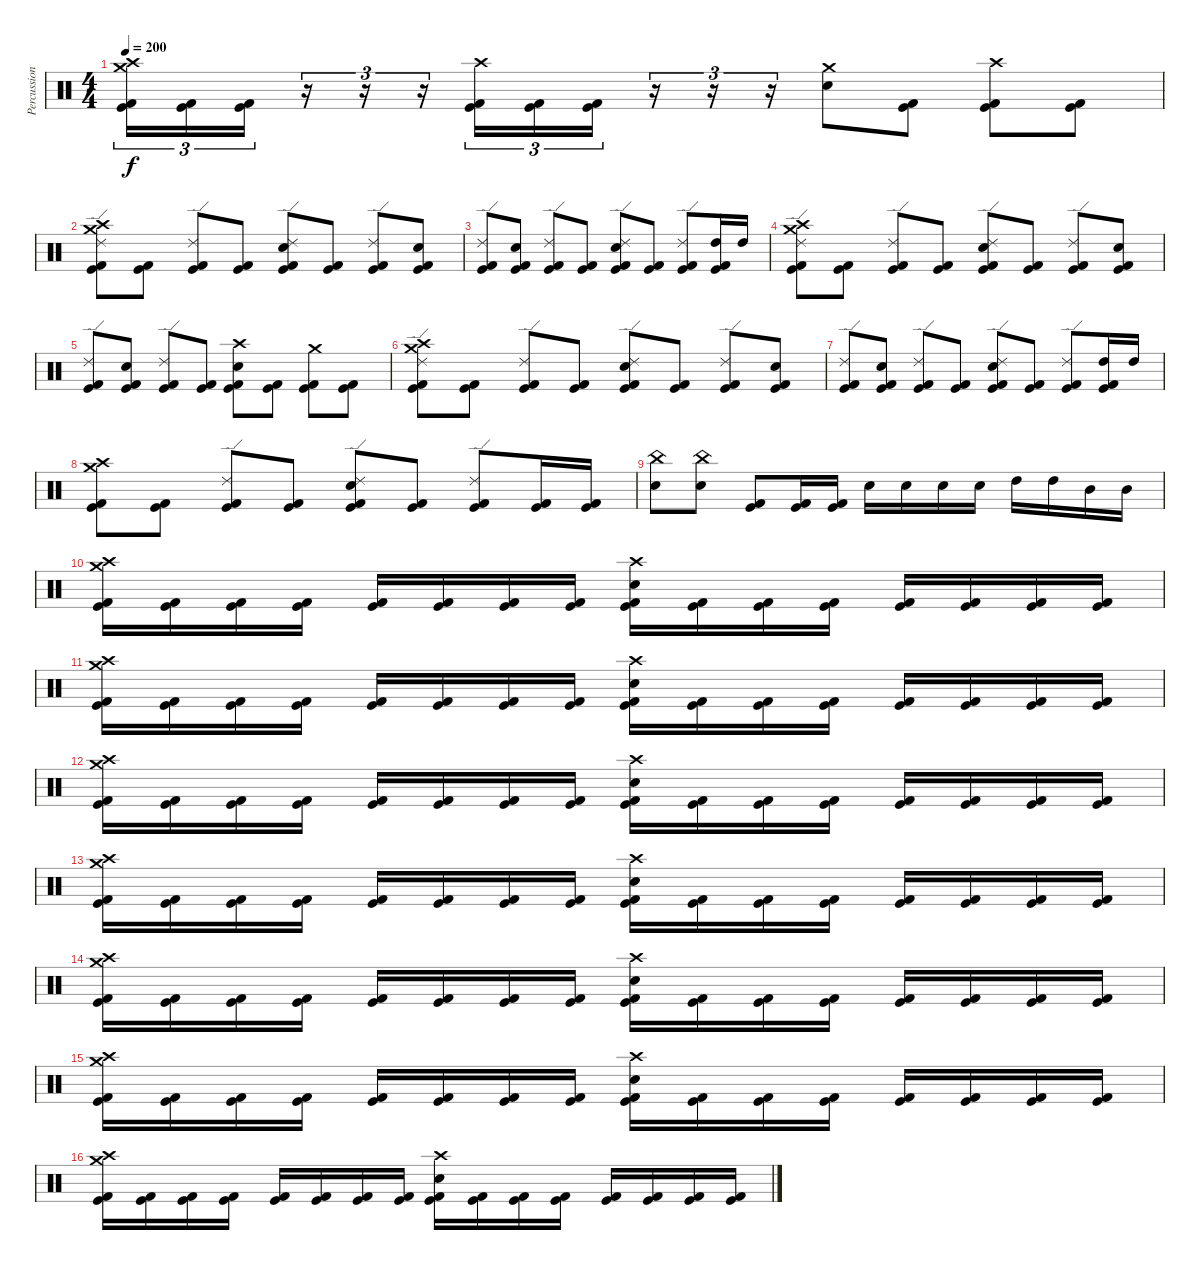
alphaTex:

\track ("Percussion" "Percussion") {instrument percussion}
\staff {score}
\articulation defaults
\ts (4 4)
\tempo 200
\clef neutral
\ks c
("Crash medium (hit)" "Crash high (hit)" "Kick (hit)" "Kick (hit) 2").16{tu (3 2) dy f} ("Kick (hit)" "Kick (hit) 2").16{tu (3 2)} ("Kick (hit)" "Kick (hit) 2").16{tu (3 2)} r.16{tu (3 2)} r.16{tu (3 2)} r.16{tu (3 2)} ("Crash high (hit)" "Kick (hit)" "Kick (hit) 2").16{tu (3 2)} ("Kick (hit)" "Kick (hit) 2").16{tu (3 2)} ("Kick (hit)" "Kick (hit) 2").16{tu (3 2)} r.16{tu (3 2)} r.16{tu (3 2)} r.16{tu (3 2)} ("Crash medium (hit)" "Electric Snare (hit)").8 ("Kick (hit)" "Kick (hit) 2").8 ("Crash high (hit)" "Kick (hit)" "Kick (hit) 2").8 ("Kick (hit)" "Kick (hit) 2").8 |
("Crash medium (hit)" "Crash high (hit)" "Ride (edge) 2" "Kick (hit)" "Kick (hit) 2").8 ("Kick (hit)" "Kick (hit) 2").8 ("Ride (edge) 2" "Kick (hit)" "Kick (hit) 2").8 ("Kick (hit)" "Kick (hit) 2").8 ("Ride (edge) 2" "Electric Snare (hit)" "Kick (hit)" "Kick (hit) 2").8 ("Kick (hit)" "Kick (hit) 2").8 ("Ride (edge) 2" "Kick (hit)" "Kick (hit) 2").8 ("Electric Snare (hit)" "Kick (hit)" "Kick (hit) 2").8 |
("Ride (edge) 2" "Kick (hit)" "Kick (hit) 2").8 ("Electric Snare (hit)" "Kick (hit)" "Kick (hit) 2").8 ("Ride (edge) 2" "Kick (hit)" "Kick (hit) 2").8 ("Kick (hit)" "Kick (hit) 2").8 ("Ride (edge) 2" "Electric Snare (hit)" "Kick (hit)" "Kick (hit) 2").8 ("Kick (hit)" "Kick (hit) 2").8 ("Ride (edge) 2" "Kick (hit)" "Kick (hit) 2").8 ("High Tom (hit)" "Kick (hit)" "Kick (hit) 2").16 "High Tom (hit)".16 |
("Crash medium (hit)" "Crash high (hit)" "Ride (edge) 2" "Kick (hit)" "Kick (hit) 2").8 ("Kick (hit)" "Kick (hit) 2").8 ("Ride (edge) 2" "Kick (hit)" "Kick (hit) 2").8 ("Kick (hit)" "Kick (hit) 2").8 ("Ride (edge) 2" "Electric Snare (hit)" "Kick (hit)" "Kick (hit) 2").8 ("Kick (hit)" "Kick (hit) 2").8 ("Ride (edge) 2" "Kick (hit)" "Kick (hit) 2").8 ("Electric Snare (hit)" "Kick (hit)" "Kick (hit) 2").8 |
("Ride (edge) 2" "Kick (hit)" "Kick (hit) 2").8 ("Electric Snare (hit)" "Kick (hit)" "Kick (hit) 2").8 ("Ride (edge) 2" "Kick (hit)" "Kick (hit) 2").8 ("Kick (hit)" "Kick (hit) 2").8 ("Crash high (hit)" "Electric Snare (hit)" "Kick (hit)" "Kick (hit) 2").8 ("Kick (hit)" "Kick (hit) 2").8 ("Crash medium (hit)" "Kick (hit)" "Kick (hit) 2").8 ("Kick (hit)" "Kick (hit) 2").8 |
("Crash medium (hit)" "Crash high (hit)" "Ride (edge) 2" "Kick (hit)" "Kick (hit) 2").8 ("Kick (hit)" "Kick (hit) 2").8 ("Ride (edge) 2" "Kick (hit)" "Kick (hit) 2").8 ("Kick (hit)" "Kick (hit) 2").8 ("Ride (edge) 2" "Electric Snare (hit)" "Kick (hit)" "Kick (hit) 2").8 ("Kick (hit)" "Kick (hit) 2").8 ("Ride (edge) 2" "Kick (hit)" "Kick (hit) 2").8 ("Electric Snare (hit)" "Kick (hit)" "Kick (hit) 2").8 |
("Ride (edge) 2" "Kick (hit)" "Kick (hit) 2").8 ("Electric Snare (hit)" "Kick (hit)" "Kick (hit) 2").8 ("Ride (edge) 2" "Kick (hit)" "Kick (hit) 2").8 ("Kick (hit)" "Kick (hit) 2").8 ("Ride (edge) 2" "Electric Snare (hit)" "Kick (hit)" "Kick (hit) 2").8 ("Kick (hit)" "Kick (hit) 2").8 ("Ride (edge) 2" "Kick (hit)" "Kick (hit) 2").8 ("High Tom (hit)" "Kick (hit)" "Kick (hit) 2").16 "High Tom (hit)".16 |
("Crash medium (hit)" "Crash high (hit)" "Kick (hit)" "Kick (hit) 2").8 ("Kick (hit)" "Kick (hit) 2").8 ("Ride (edge) 2" "Kick (hit)" "Kick (hit) 2").8 ("Kick (hit)" "Kick (hit) 2").8 ("Ride (edge) 2" "Electric Snare (hit)" "Kick (hit)" "Kick (hit) 2").8 ("Kick (hit)" "Kick (hit) 2").8 ("Ride (edge) 2" "Kick (hit)" "Kick (hit) 2").8 ("Kick (hit)" "Kick (hit) 2").16 ("Kick (hit)" "Kick (hit) 2").16 |
("China (hit)" "Electric Snare (hit)").8 ("China (hit)" "Electric Snare (hit)").8 ("Kick (hit)" "Kick (hit) 2").8 ("Kick (hit)" "Kick (hit) 2").16 ("Kick (hit)" "Kick (hit) 2").16 "Electric Snare (hit)".16 "Electric Snare (hit)".16 "Electric Snare (hit)".16 "Electric Snare (hit)".16 "High Tom (hit)".16 "High Tom (hit)".16 "Mid Tom (hit)".16 "Mid Tom (hit)".16 |
("Crash medium (hit)" "Crash high (hit)" "Kick (hit)" "Kick (hit) 2").16 ("Kick (hit)" "Kick (hit) 2").16 ("Kick (hit)" "Kick (hit) 2").16 ("Kick (hit)" "Kick (hit) 2").16 ("Kick (hit)" "Kick (hit) 2").16 ("Kick (hit)" "Kick (hit) 2").16 ("Kick (hit)" "Kick (hit) 2").16 ("Kick (hit)" "Kick (hit) 2").16 ("Crash high (hit)" "Electric Snare (hit)" "Kick (hit)" "Kick (hit) 2").16 ("Kick (hit)" "Kick (hit) 2").16 ("Kick (hit)" "Kick (hit) 2").16 ("Kick (hit)" "Kick (hit) 2").16 ("Kick (hit)" "Kick (hit) 2").16 ("Kick (hit)" "Kick (hit) 2").16 ("Kick (hit)" "Kick (hit) 2").16 ("Kick (hit)" "Kick (hit) 2").16 |
("Crash medium (hit)" "Crash high (hit)" "Kick (hit)" "Kick (hit) 2").16 ("Kick (hit)" "Kick (hit) 2").16 ("Kick (hit)" "Kick (hit) 2").16 ("Kick (hit)" "Kick (hit) 2").16 ("Kick (hit)" "Kick (hit) 2").16 ("Kick (hit)" "Kick (hit) 2").16 ("Kick (hit)" "Kick (hit) 2").16 ("Kick (hit)" "Kick (hit) 2").16 ("Crash high (hit)" "Electric Snare (hit)" "Kick (hit)" "Kick (hit) 2").16 ("Kick (hit)" "Kick (hit) 2").16 ("Kick (hit)" "Kick (hit) 2").16 ("Kick (hit)" "Kick (hit) 2").16 ("Kick (hit)" "Kick (hit) 2").16 ("Kick (hit)" "Kick (hit) 2").16 ("Kick (hit)" "Kick (hit) 2").16 ("Kick (hit)" "Kick (hit) 2").16 |
("Crash medium (hit)" "Crash high (hit)" "Kick (hit)" "Kick (hit) 2").16 ("Kick (hit)" "Kick (hit) 2").16 ("Kick (hit)" "Kick (hit) 2").16 ("Kick (hit)" "Kick (hit) 2").16 ("Kick (hit)" "Kick (hit) 2").16 ("Kick (hit)" "Kick (hit) 2").16 ("Kick (hit)" "Kick (hit) 2").16 ("Kick (hit)" "Kick (hit) 2").16 ("Crash high (hit)" "Electric Snare (hit)" "Kick (hit)" "Kick (hit) 2").16 ("Kick (hit)" "Kick (hit) 2").16 ("Kick (hit)" "Kick (hit) 2").16 ("Kick (hit)" "Kick (hit) 2").16 ("Kick (hit)" "Kick (hit) 2").16 ("Kick (hit)" "Kick (hit) 2").16 ("Kick (hit)" "Kick (hit) 2").16 ("Kick (hit)" "Kick (hit) 2").16 |
("Crash medium (hit)" "Crash high (hit)" "Kick (hit)" "Kick (hit) 2").16 ("Kick (hit)" "Kick (hit) 2").16 ("Kick (hit)" "Kick (hit) 2").16 ("Kick (hit)" "Kick (hit) 2").16 ("Kick (hit)" "Kick (hit) 2").16 ("Kick (hit)" "Kick (hit) 2").16 ("Kick (hit)" "Kick (hit) 2").16 ("Kick (hit)" "Kick (hit) 2").16 ("Crash high (hit)" "Electric Snare (hit)" "Kick (hit)" "Kick (hit) 2").16 ("Kick (hit)" "Kick (hit) 2").16 ("Kick (hit)" "Kick (hit) 2").16 ("Kick (hit)" "Kick (hit) 2").16 ("Kick (hit)" "Kick (hit) 2").16 ("Kick (hit)" "Kick (hit) 2").16 ("Kick (hit)" "Kick (hit) 2").16 ("Kick (hit)" "Kick (hit) 2").16 |
("Crash medium (hit)" "Crash high (hit)" "Kick (hit)" "Kick (hit) 2").16 ("Kick (hit)" "Kick (hit) 2").16 ("Kick (hit)" "Kick (hit) 2").16 ("Kick (hit)" "Kick (hit) 2").16 ("Kick (hit)" "Kick (hit) 2").16 ("Kick (hit)" "Kick (hit) 2").16 ("Kick (hit)" "Kick (hit) 2").16 ("Kick (hit)" "Kick (hit) 2").16 ("Crash high (hit)" "Electric Snare (hit)" "Kick (hit)" "Kick (hit) 2").16 ("Kick (hit)" "Kick (hit) 2").16 ("Kick (hit)" "Kick (hit) 2").16 ("Kick (hit)" "Kick (hit) 2").16 ("Kick (hit)" "Kick (hit) 2").16 ("Kick (hit)" "Kick (hit) 2").16 ("Kick (hit)" "Kick (hit) 2").16 ("Kick (hit)" "Kick (hit) 2").16 |
("Crash medium (hit)" "Crash high (hit)" "Kick (hit)" "Kick (hit) 2").16 ("Kick (hit)" "Kick (hit) 2").16 ("Kick (hit)" "Kick (hit) 2").16 ("Kick (hit)" "Kick (hit) 2").16 ("Kick (hit)" "Kick (hit) 2").16 ("Kick (hit)" "Kick (hit) 2").16 ("Kick (hit)" "Kick (hit) 2").16 ("Kick (hit)" "Kick (hit) 2").16 ("Crash high (hit)" "Electric Snare (hit)" "Kick (hit)" "Kick (hit) 2").16 ("Kick (hit)" "Kick (hit) 2").16 ("Kick (hit)" "Kick (hit) 2").16 ("Kick (hit)" "Kick (hit) 2").16 ("Kick (hit)" "Kick (hit) 2").16 ("Kick (hit)" "Kick (hit) 2").16 ("Kick (hit)" "Kick (hit) 2").16 ("Kick (hit)" "Kick (hit) 2").16 |
("Crash medium (hit)" "Crash high (hit)" "Kick (hit)" "Kick (hit) 2").16 ("Kick (hit)" "Kick (hit) 2").16 ("Kick (hit)" "Kick (hit) 2").16 ("Kick (hit)" "Kick (hit) 2").16 ("Kick (hit)" "Kick (hit) 2").16 ("Kick (hit)" "Kick (hit) 2").16 ("Kick (hit)" "Kick (hit) 2").16 ("Kick (hit)" "Kick (hit) 2").16 ("Crash high (hit)" "Electric Snare (hit)" "Kick (hit)" "Kick (hit) 2").16 ("Kick (hit)" "Kick (hit) 2").16 ("Kick (hit)" "Kick (hit) 2").16 ("Kick (hit)" "Kick (hit) 2").16 ("Kick (hit)" "Kick (hit) 2").16 ("Kick (hit)" "Kick (hit) 2").16 ("Kick (hit)" "Kick (hit) 2").16 ("Kick (hit)" "Kick (hit) 2").16
